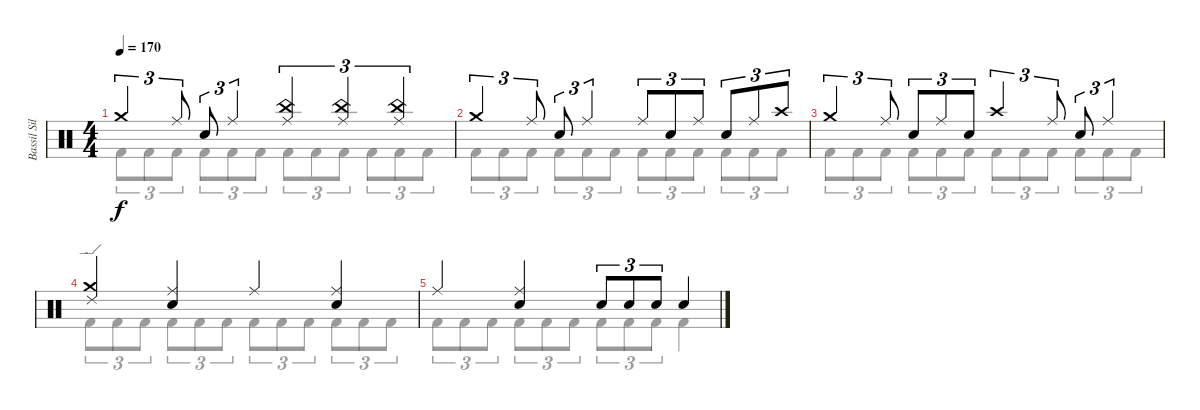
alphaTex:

\track ("Bassil Silver-Hajo" "Bassil Sil") {instrument percussion}
\staff {score}
\articulation defaults
\voice
\ts (4 4)
\tempo 170
\clef neutral
\ks c "Crash medium (hit)".4{tu (3 2) dy f} "Ride (middle)".8{tu (3 2)} "Snare (hit) 2".8{tu (3 2)} "Ride (middle)".4{tu (3 2)}
("China (hit)" "Ride (middle)").4{tu (3 2)} ("China (hit)" "Ride (middle)").4{tu (3 2)} ("China (hit)" "Ride (middle)").4{tu (3 2)} |
"Crash medium (hit)".4{tu (3 2)} "Ride (middle)".8{tu (3 2)} "Snare (hit) 2".8{tu (3 2)} "Ride (middle)".4{tu (3 2)} "Ride (middle)".8{tu (3 2)} "Snare (hit) 2".8{tu (3 2)} "Ride (middle)".8{tu (3 2)} "Snare (hit) 2".8{tu (3 2)} "Ride (middle)".8{tu (3 2)} "Crash high (hit)".8{tu (3 2)} |
"Crash medium (hit)".4{tu (3 2)} "Ride (middle)".8{tu (3 2)} "Snare (hit) 2".8{tu (3 2)} "Ride (middle)".8{tu (3 2)} "Snare (hit) 2".8{tu (3 2)} "Crash high (hit)".4{tu (3 2)} "Ride (middle)".8{tu (3 2)} "Snare (hit) 2".8{tu (3 2)} "Ride (middle)".4{tu (3 2)} |
("Ride (edge) 2" "Crash medium (hit)").4 ("Ride (middle)" "Snare (hit) 2").4 "Ride (middle)".4 ("Ride (middle)" "Snare (hit) 2").4 |
"Ride (middle)".4 ("Ride (middle)" "Snare (hit) 2").4 "Snare (hit) 2".8{tu (3 2)} "Snare (hit) 2".8{tu (3 2)} "Snare (hit) 2".8{tu (3 2)} "Snare (hit) 2".4
\voice
\clef neutral
\ottava regular
\simile none
\ks c "Kick (hit) 2".8{tu (3 2) dy f} "Kick (hit) 2".8{tu (3 2)} "Kick (hit) 2".8{tu (3 2)} "Kick (hit) 2".8{tu (3 2)} "Kick (hit) 2".8{tu (3 2)} "Kick (hit) 2".8{tu (3 2)} "Kick (hit) 2".8{tu (3 2)} "Kick (hit) 2".8{tu (3 2)} "Kick (hit) 2".8{tu (3 2)} "Kick (hit) 2".8{tu (3 2)} "Kick (hit) 2".8{tu (3 2)} "Kick (hit) 2".8{tu (3 2)}
|
"Kick (hit) 2".8{tu (3 2)} "Kick (hit) 2".8{tu (3 2)} "Kick (hit) 2".8{tu (3 2)} "Kick (hit) 2".8{tu (3 2)} "Kick (hit) 2".8{tu (3 2)} "Kick (hit) 2".8{tu (3 2)} "Kick (hit) 2".8{tu (3 2)} "Kick (hit) 2".8{tu (3 2)} "Kick (hit) 2".8{tu (3 2)} "Kick (hit) 2".8{tu (3 2)} "Kick (hit) 2".8{tu (3 2)} "Kick (hit) 2".8{tu (3 2)} |
"Kick (hit) 2".8{tu (3 2)} "Kick (hit) 2".8{tu (3 2)} "Kick (hit) 2".8{tu (3 2)} "Kick (hit) 2".8{tu (3 2)} "Kick (hit) 2".8{tu (3 2)} "Kick (hit) 2".8{tu (3 2)} "Kick (hit) 2".8{tu (3 2)} "Kick (hit) 2".8{tu (3 2)} "Kick (hit) 2".8{tu (3 2)} "Kick (hit) 2".8{tu (3 2)} "Kick (hit) 2".8{tu (3 2)} "Kick (hit) 2".8{tu (3 2)} |
"Kick (hit) 2".8{tu (3 2)} "Kick (hit) 2".8{tu (3 2)} "Kick (hit) 2".8{tu (3 2)} "Kick (hit) 2".8{tu (3 2)} "Kick (hit) 2".8{tu (3 2)} "Kick (hit) 2".8{tu (3 2)} "Kick (hit) 2".8{tu (3 2)} "Kick (hit) 2".8{tu (3 2)} "Kick (hit) 2".8{tu (3 2)} "Kick (hit) 2".8{tu (3 2)} "Kick (hit) 2".8{tu (3 2)} "Kick (hit) 2".8{tu (3 2)} |
"Kick (hit) 2".8{tu (3 2)} "Kick (hit) 2".8{tu (3 2)} "Kick (hit) 2".8{tu (3 2)} "Kick (hit) 2".8{tu (3 2)} "Kick (hit) 2".8{tu (3 2)} "Kick (hit) 2".8{tu (3 2)} "Kick (hit) 2".8{tu (3 2)} "Kick (hit) 2".8{tu (3 2)} "Kick (hit) 2".8{tu (3 2)} "Kick (hit) 2".4
